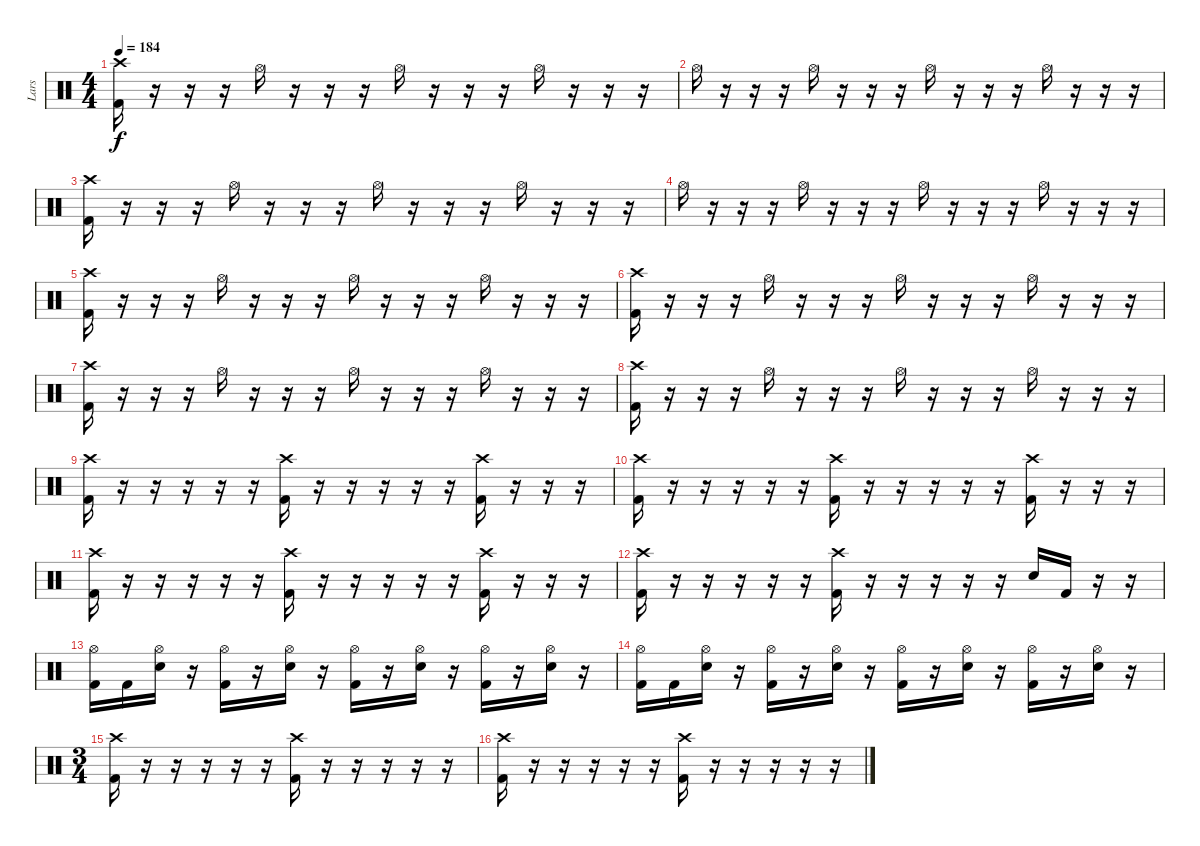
\track ("Lars" "Lars") {instrument percussion}
\staff {score}
\articulation defaults
\ts (4 4)
\tempo 184
\clef neutral
\ks c
("Crash high (hit)" "Kick (hit) 2").16{dy f} r.16 r.16 r.16 "Hi-Hat (open)".16 r.16 r.16 r.16 "Hi-Hat (open)".16 r.16 r.16 r.16 "Hi-Hat (open)".16 r.16 r.16 r.16 |
"Hi-Hat (open)".16 r.16 r.16 r.16 "Hi-Hat (open)".16 r.16 r.16 r.16 "Hi-Hat (open)".16 r.16 r.16 r.16 "Hi-Hat (open)".16 r.16 r.16 r.16 |
("Crash high (hit)" "Kick (hit) 2").16 r.16 r.16 r.16 "Hi-Hat (open)".16 r.16 r.16 r.16 "Hi-Hat (open)".16 r.16 r.16 r.16 "Hi-Hat (open)".16 r.16 r.16 r.16 |
"Hi-Hat (open)".16 r.16 r.16 r.16 "Hi-Hat (open)".16 r.16 r.16 r.16 "Hi-Hat (open)".16 r.16 r.16 r.16 "Hi-Hat (open)".16 r.16 r.16 r.16 |
("Crash high (hit)" "Kick (hit) 2").16 r.16 r.16 r.16 "Hi-Hat (open)".16 r.16 r.16 r.16 "Hi-Hat (open)".16 r.16 r.16 r.16 "Hi-Hat (open)".16 r.16 r.16 r.16 |
("Crash high (hit)" "Kick (hit) 2").16 r.16 r.16 r.16 "Hi-Hat (open)".16 r.16 r.16 r.16 "Hi-Hat (open)".16 r.16 r.16 r.16 "Hi-Hat (open)".16 r.16 r.16 r.16 |
("Crash high (hit)" "Kick (hit) 2").16 r.16 r.16 r.16 "Hi-Hat (open)".16 r.16 r.16 r.16 "Hi-Hat (open)".16 r.16 r.16 r.16 "Hi-Hat (open)".16 r.16 r.16 r.16 |
("Crash high (hit)" "Kick (hit) 2").16 r.16 r.16 r.16 "Hi-Hat (open)".16 r.16 r.16 r.16 "Hi-Hat (open)".16 r.16 r.16 r.16 "Hi-Hat (open)".16 r.16 r.16 r.16 |
("Crash high (hit)" "Kick (hit) 2").16 r.16 r.16 r.16 r.16 r.16 ("Crash high (hit)" "Kick (hit) 2").16 r.16 r.16 r.16 r.16 r.16 ("Crash high (hit)" "Kick (hit) 2").16 r.16 r.16 r.16 |
("Crash high (hit)" "Kick (hit) 2").16 r.16 r.16 r.16 r.16 r.16 ("Crash high (hit)" "Kick (hit) 2").16 r.16 r.16 r.16 r.16 r.16 ("Crash high (hit)" "Kick (hit) 2").16 r.16 r.16 r.16 |
("Crash high (hit)" "Kick (hit) 2").16 r.16 r.16 r.16 r.16 r.16 ("Crash high (hit)" "Kick (hit) 2").16 r.16 r.16 r.16 r.16 r.16 ("Crash high (hit)" "Kick (hit) 2").16 r.16 r.16 r.16 |
("Crash high (hit)" "Kick (hit) 2").16 r.16 r.16 r.16 r.16 r.16 ("Crash high (hit)" "Kick (hit) 2").16 r.16 r.16 r.16 r.16 r.16 "Electric Snare (hit)".16 "Kick (hit) 2".16 r.16 r.16 |
("Hi-Hat (open)" "Kick (hit) 2").16 "Kick (hit) 2".16 ("Electric Snare (hit)" "Hi-Hat (open)").16 r.16 ("Hi-Hat (open)" "Kick (hit) 2").16 r.16 ("Electric Snare (hit)" "Hi-Hat (open)").16 r.16 ("Hi-Hat (open)" "Kick (hit) 2").16 r.16 ("Electric Snare (hit)" "Hi-Hat (open)").16 r.16 ("Hi-Hat (open)" "Kick (hit) 2").16 r.16 ("Electric Snare (hit)" "Hi-Hat (open)").16 r.16 |
("Hi-Hat (open)" "Kick (hit) 2").16 "Kick (hit) 2".16 ("Electric Snare (hit)" "Hi-Hat (open)").16 r.16 ("Hi-Hat (open)" "Kick (hit) 2").16 r.16 ("Electric Snare (hit)" "Hi-Hat (open)").16 r.16 ("Hi-Hat (open)" "Kick (hit) 2").16 r.16 ("Electric Snare (hit)" "Hi-Hat (open)").16 r.16 ("Hi-Hat (open)" "Kick (hit) 2").16 r.16 ("Electric Snare (hit)" "Hi-Hat (open)").16 r.16 |
\ts (3 4)
("Crash high (hit)" "Kick (hit) 2").16 r.16 r.16 r.16 r.16 r.16 ("Crash high (hit)" "Kick (hit) 2").16 r.16 r.16 r.16 r.16 r.16 |
("Crash high (hit)" "Kick (hit) 2").16 r.16 r.16 r.16 r.16 r.16 ("Crash high (hit)" "Kick (hit) 2").16 r.16 r.16 r.16 r.16 r.16
